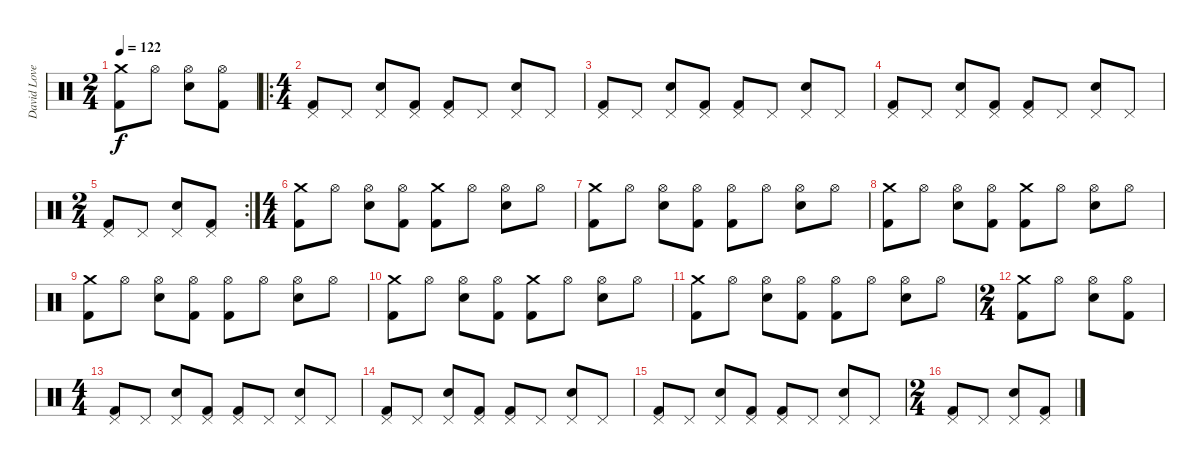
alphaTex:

\track ("David Lovering" "David Love") {instrument percussion}
\staff {score}
\articulation defaults
\ts (2 4)
\tempo 122
\clef neutral
\ks c
("Crash medium (hit)" "Kick (hit) 2").8{dy f} "Hi-Hat (open)".8 ("Hi-Hat (open)" "Electric Snare (hit)").8 ("Hi-Hat (open)" "Kick (hit) 2").8 |
\ro
\ts (4 4)
("Pedal Hi-Hat (hit)" "Kick (hit) 2").8 "Pedal Hi-Hat (hit)".8 ("Pedal Hi-Hat (hit)" "Electric Snare (hit)").8 ("Pedal Hi-Hat (hit)" "Kick (hit) 2").8 ("Pedal Hi-Hat (hit)" "Kick (hit) 2").8 "Pedal Hi-Hat (hit)".8 ("Pedal Hi-Hat (hit)" "Electric Snare (hit)").8 "Pedal Hi-Hat (hit)".8 |
("Pedal Hi-Hat (hit)" "Kick (hit) 2").8 "Pedal Hi-Hat (hit)".8 ("Pedal Hi-Hat (hit)" "Electric Snare (hit)").8 ("Pedal Hi-Hat (hit)" "Kick (hit) 2").8 ("Pedal Hi-Hat (hit)" "Kick (hit) 2").8 "Pedal Hi-Hat (hit)".8 ("Pedal Hi-Hat (hit)" "Electric Snare (hit)").8 "Pedal Hi-Hat (hit)".8 |
("Pedal Hi-Hat (hit)" "Kick (hit) 2").8 "Pedal Hi-Hat (hit)".8 ("Pedal Hi-Hat (hit)" "Electric Snare (hit)").8 ("Pedal Hi-Hat (hit)" "Kick (hit) 2").8 ("Pedal Hi-Hat (hit)" "Kick (hit) 2").8 "Pedal Hi-Hat (hit)".8 ("Pedal Hi-Hat (hit)" "Electric Snare (hit)").8 "Pedal Hi-Hat (hit)".8 |
\rc 2
\ts (2 4)
("Pedal Hi-Hat (hit)" "Kick (hit) 2").8 "Pedal Hi-Hat (hit)".8 ("Pedal Hi-Hat (hit)" "Electric Snare (hit)").8 ("Pedal Hi-Hat (hit)" "Kick (hit) 2").8 |
\ts (4 4)
("Crash medium (hit)" "Kick (hit) 2").8 "Hi-Hat (open)".8 ("Hi-Hat (open)" "Electric Snare (hit)").8 ("Hi-Hat (open)" "Kick (hit) 2").8 ("Crash medium (hit)" "Kick (hit) 2").8 "Hi-Hat (open)".8 ("Hi-Hat (open)" "Electric Snare (hit)").8 "Hi-Hat (open)".8 |
("Crash medium (hit)" "Kick (hit) 2").8 "Hi-Hat (open)".8 ("Hi-Hat (open)" "Electric Snare (hit)").8 ("Hi-Hat (open)" "Kick (hit) 2").8 ("Hi-Hat (open)" "Kick (hit) 2").8 "Hi-Hat (open)".8 ("Hi-Hat (open)" "Electric Snare (hit)").8 "Hi-Hat (open)".8 |
("Crash medium (hit)" "Kick (hit) 2").8 "Hi-Hat (open)".8 ("Hi-Hat (open)" "Electric Snare (hit)").8 ("Hi-Hat (open)" "Kick (hit) 2").8 ("Crash medium (hit)" "Kick (hit) 2").8 "Hi-Hat (open)".8 ("Hi-Hat (open)" "Electric Snare (hit)").8 "Hi-Hat (open)".8 |
("Crash medium (hit)" "Kick (hit) 2").8 "Hi-Hat (open)".8 ("Hi-Hat (open)" "Electric Snare (hit)").8 ("Hi-Hat (open)" "Kick (hit) 2").8 ("Hi-Hat (open)" "Kick (hit) 2").8 "Hi-Hat (open)".8 ("Hi-Hat (open)" "Electric Snare (hit)").8 "Hi-Hat (open)".8 |
("Crash medium (hit)" "Kick (hit) 2").8 "Hi-Hat (open)".8 ("Hi-Hat (open)" "Electric Snare (hit)").8 ("Hi-Hat (open)" "Kick (hit) 2").8 ("Crash medium (hit)" "Kick (hit) 2").8 "Hi-Hat (open)".8 ("Hi-Hat (open)" "Electric Snare (hit)").8 "Hi-Hat (open)".8 |
("Crash medium (hit)" "Kick (hit) 2").8 "Hi-Hat (open)".8 ("Hi-Hat (open)" "Electric Snare (hit)").8 ("Hi-Hat (open)" "Kick (hit) 2").8 ("Hi-Hat (open)" "Kick (hit) 2").8 "Hi-Hat (open)".8 ("Hi-Hat (open)" "Electric Snare (hit)").8 "Hi-Hat (open)".8 |
\ts (2 4)
("Crash medium (hit)" "Kick (hit) 2").8 "Hi-Hat (open)".8 ("Hi-Hat (open)" "Electric Snare (hit)").8 ("Hi-Hat (open)" "Kick (hit) 2").8 |
\ts (4 4)
("Pedal Hi-Hat (hit)" "Kick (hit) 2").8 "Pedal Hi-Hat (hit)".8 ("Pedal Hi-Hat (hit)" "Electric Snare (hit)").8 ("Pedal Hi-Hat (hit)" "Kick (hit) 2").8 ("Pedal Hi-Hat (hit)" "Kick (hit) 2").8 "Pedal Hi-Hat (hit)".8 ("Pedal Hi-Hat (hit)" "Electric Snare (hit)").8 "Pedal Hi-Hat (hit)".8 |
("Pedal Hi-Hat (hit)" "Kick (hit) 2").8 "Pedal Hi-Hat (hit)".8 ("Pedal Hi-Hat (hit)" "Electric Snare (hit)").8 ("Pedal Hi-Hat (hit)" "Kick (hit) 2").8 ("Pedal Hi-Hat (hit)" "Kick (hit) 2").8 "Pedal Hi-Hat (hit)".8 ("Pedal Hi-Hat (hit)" "Electric Snare (hit)").8 "Pedal Hi-Hat (hit)".8 |
("Pedal Hi-Hat (hit)" "Kick (hit) 2").8 "Pedal Hi-Hat (hit)".8 ("Pedal Hi-Hat (hit)" "Electric Snare (hit)").8 ("Pedal Hi-Hat (hit)" "Kick (hit) 2").8 ("Pedal Hi-Hat (hit)" "Kick (hit) 2").8 "Pedal Hi-Hat (hit)".8 ("Pedal Hi-Hat (hit)" "Electric Snare (hit)").8 "Pedal Hi-Hat (hit)".8 |
\ts (2 4)
("Pedal Hi-Hat (hit)" "Kick (hit) 2").8 "Pedal Hi-Hat (hit)".8 ("Pedal Hi-Hat (hit)" "Electric Snare (hit)").8 ("Pedal Hi-Hat (hit)" "Kick (hit) 2").8
